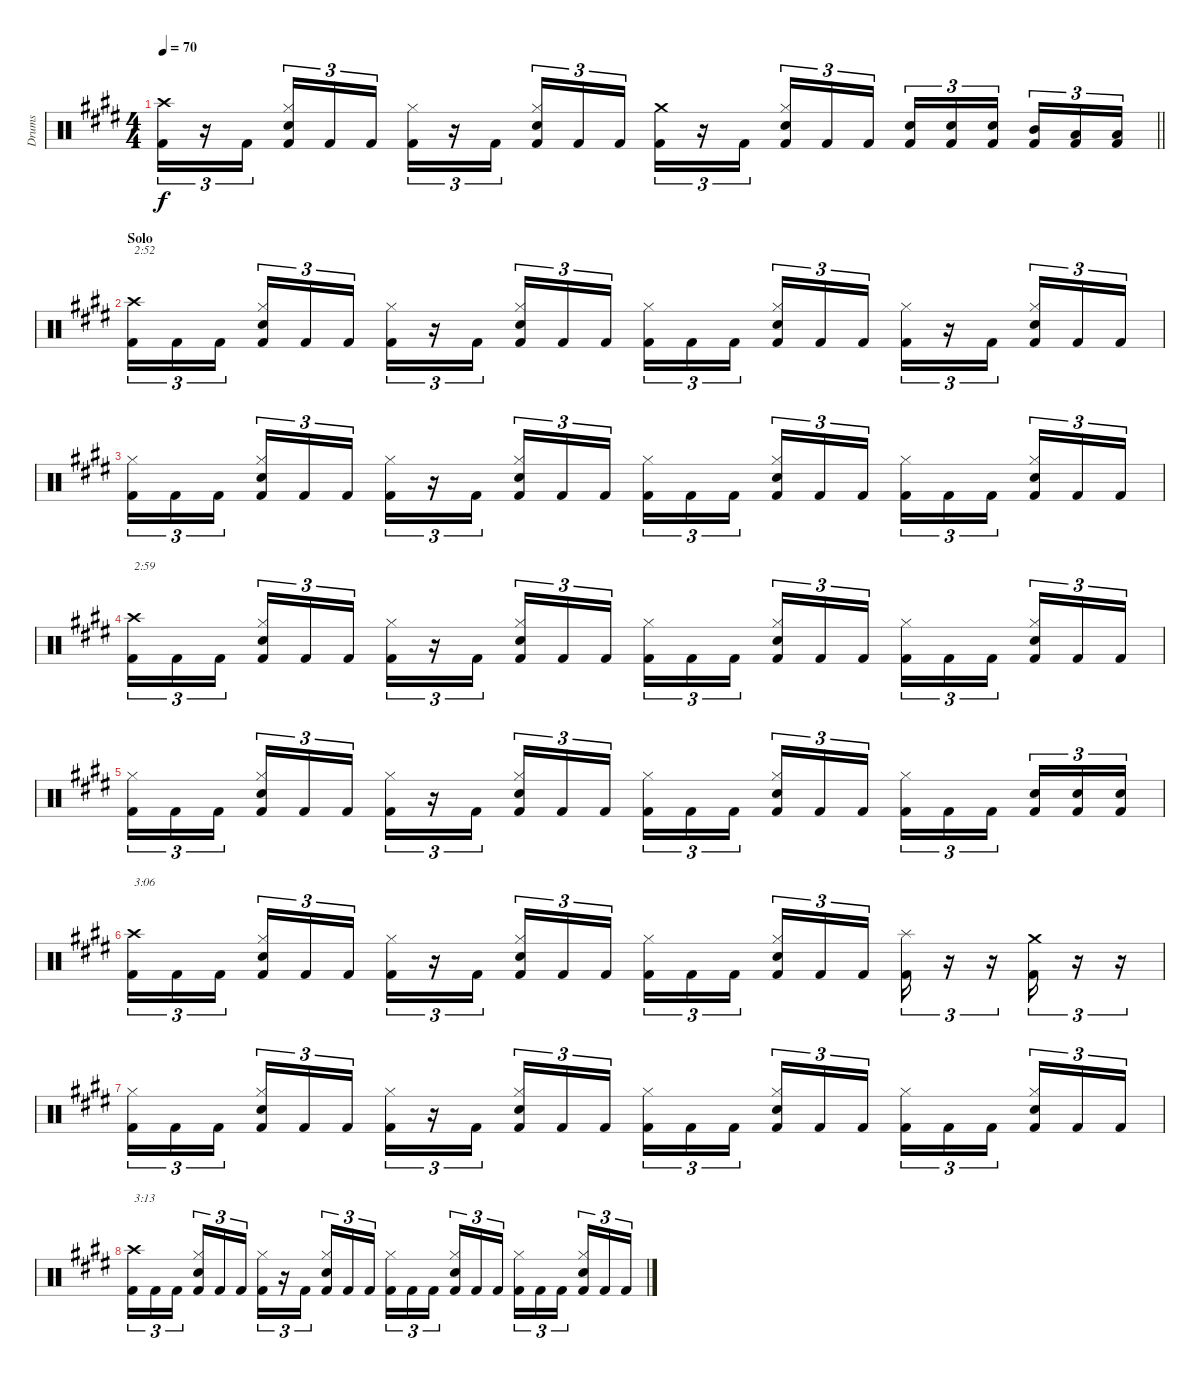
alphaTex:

\track ("Drums" "Drums") {instrument percussion}
\staff {score}
\articulation defaults
\ts (4 4)
\tempo 70
\clef neutral
\barLineRight lightlight
\ks c#minor
("Crash high (hit)" "Kick (hit) 2").16{tu (3 2) dy f} r.16{tu (3 2)} "Kick (hit) 2".16{tu (3 2) beam splitsecondary} ("Hi-Hat (closed)" "Snare (hit) 2" "Kick (hit) 2").16{tu (3 2)} "Kick (hit) 2".16{tu (3 2)} "Kick (hit) 2".16{tu (3 2)} ("Hi-Hat (closed)" "Kick (hit) 2").16{tu (3 2)} r.16{tu (3 2)} "Kick (hit) 2".16{tu (3 2) beam splitsecondary} ("Hi-Hat (closed)" "Snare (hit) 2" "Kick (hit) 2").16{tu (3 2)} "Kick (hit) 2".16{tu (3 2)} "Kick (hit) 2".16{tu (3 2)} ("Crash medium (hit)" "Kick (hit) 2").16{tu (3 2)} r.16{tu (3 2)} "Kick (hit) 2".16{tu (3 2) beam splitsecondary} ("Hi-Hat (closed)" "Snare (hit) 2" "Kick (hit) 2").16{tu (3 2)} "Kick (hit) 2".16{tu (3 2)} "Kick (hit) 2".16{tu (3 2)} ("Snare (hit) 2" "Kick (hit) 2").16{tu (3 2)} ("Snare (hit) 2" "Kick (hit) 2").16{tu (3 2)} ("Snare (hit) 2" "Kick (hit) 2").16{tu (3 2) beam splitsecondary} ("Mid Tom (hit)" "Kick (hit) 2").16{tu (3 2)} ("Low Tom (hit)" "Kick (hit) 2").16{tu (3 2)} ("Low Tom (hit)" "Kick (hit) 2").16{tu (3 2)} |
\section ("" "Solo")
("Crash high (hit)" "Kick (hit) 2").16{tu (3 2) txt "2:52"} "Kick (hit) 2".16{tu (3 2)} "Kick (hit) 2".16{tu (3 2) beam splitsecondary} ("Hi-Hat (closed)" "Snare (hit) 2" "Kick (hit) 2").16{tu (3 2)} "Kick (hit) 2".16{tu (3 2)} "Kick (hit) 2".16{tu (3 2)} ("Hi-Hat (closed)" "Kick (hit) 2").16{tu (3 2)} r.16{tu (3 2)} "Kick (hit) 2".16{tu (3 2) beam splitsecondary} ("Hi-Hat (closed)" "Snare (hit) 2" "Kick (hit) 2").16{tu (3 2)} "Kick (hit) 2".16{tu (3 2)} "Kick (hit) 2".16{tu (3 2)} ("Hi-Hat (closed)" "Kick (hit) 2").16{tu (3 2)} "Kick (hit) 2".16{tu (3 2)} "Kick (hit) 2".16{tu (3 2) beam splitsecondary} ("Hi-Hat (closed)" "Snare (hit) 2" "Kick (hit) 2").16{tu (3 2)} "Kick (hit) 2".16{tu (3 2)} "Kick (hit) 2".16{tu (3 2)} ("Hi-Hat (closed)" "Kick (hit) 2").16{tu (3 2)} r.16{tu (3 2)} "Kick (hit) 2".16{tu (3 2) beam splitsecondary} ("Hi-Hat (closed)" "Snare (hit) 2" "Kick (hit) 2").16{tu (3 2)} "Kick (hit) 2".16{tu (3 2)} "Kick (hit) 2".16{tu (3 2)} |
("Hi-Hat (closed)" "Kick (hit) 2").16{tu (3 2)} "Kick (hit) 2".16{tu (3 2)} "Kick (hit) 2".16{tu (3 2) beam splitsecondary} ("Hi-Hat (closed)" "Snare (hit) 2" "Kick (hit) 2").16{tu (3 2)} "Kick (hit) 2".16{tu (3 2)} "Kick (hit) 2".16{tu (3 2)} ("Hi-Hat (closed)" "Kick (hit) 2").16{tu (3 2)} r.16{tu (3 2)} "Kick (hit) 2".16{tu (3 2) beam splitsecondary} ("Hi-Hat (closed)" "Snare (hit) 2" "Kick (hit) 2").16{tu (3 2)} "Kick (hit) 2".16{tu (3 2)} "Kick (hit) 2".16{tu (3 2)} ("Hi-Hat (closed)" "Kick (hit) 2").16{tu (3 2)} "Kick (hit) 2".16{tu (3 2)} "Kick (hit) 2".16{tu (3 2) beam splitsecondary} ("Hi-Hat (closed)" "Snare (hit) 2" "Kick (hit) 2").16{tu (3 2)} "Kick (hit) 2".16{tu (3 2)} "Kick (hit) 2".16{tu (3 2)} ("Hi-Hat (closed)" "Kick (hit) 2").16{tu (3 2)} "Kick (hit) 2".16{tu (3 2)} "Kick (hit) 2".16{tu (3 2) beam splitsecondary} ("Hi-Hat (closed)" "Snare (hit) 2" "Kick (hit) 2").16{tu (3 2)} "Kick (hit) 2".16{tu (3 2)} "Kick (hit) 2".16{tu (3 2)} |
("Crash high (hit)" "Kick (hit) 2").16{tu (3 2) txt "2:59"} "Kick (hit) 2".16{tu (3 2)} "Kick (hit) 2".16{tu (3 2) beam splitsecondary} ("Hi-Hat (closed)" "Snare (hit) 2" "Kick (hit) 2").16{tu (3 2)} "Kick (hit) 2".16{tu (3 2)} "Kick (hit) 2".16{tu (3 2)} ("Hi-Hat (closed)" "Kick (hit) 2").16{tu (3 2)} r.16{tu (3 2)} "Kick (hit) 2".16{tu (3 2) beam splitsecondary} ("Hi-Hat (closed)" "Snare (hit) 2" "Kick (hit) 2").16{tu (3 2)} "Kick (hit) 2".16{tu (3 2)} "Kick (hit) 2".16{tu (3 2)} ("Hi-Hat (closed)" "Kick (hit) 2").16{tu (3 2)} "Kick (hit) 2".16{tu (3 2)} "Kick (hit) 2".16{tu (3 2) beam splitsecondary} ("Hi-Hat (closed)" "Snare (hit) 2" "Kick (hit) 2").16{tu (3 2)} "Kick (hit) 2".16{tu (3 2)} "Kick (hit) 2".16{tu (3 2)} ("Hi-Hat (closed)" "Kick (hit) 2").16{tu (3 2)} "Kick (hit) 2".16{tu (3 2)} "Kick (hit) 2".16{tu (3 2) beam splitsecondary} ("Hi-Hat (closed)" "Snare (hit) 2" "Kick (hit) 2").16{tu (3 2)} "Kick (hit) 2".16{tu (3 2)} "Kick (hit) 2".16{tu (3 2)} |
("Hi-Hat (closed)" "Kick (hit) 2").16{tu (3 2)} "Kick (hit) 2".16{tu (3 2)} "Kick (hit) 2".16{tu (3 2) beam splitsecondary} ("Hi-Hat (closed)" "Snare (hit) 2" "Kick (hit) 2").16{tu (3 2)} "Kick (hit) 2".16{tu (3 2)} "Kick (hit) 2".16{tu (3 2)} ("Hi-Hat (closed)" "Kick (hit) 2").16{tu (3 2)} r.16{tu (3 2)} "Kick (hit) 2".16{tu (3 2) beam splitsecondary} ("Hi-Hat (closed)" "Snare (hit) 2" "Kick (hit) 2").16{tu (3 2)} "Kick (hit) 2".16{tu (3 2)} "Kick (hit) 2".16{tu (3 2)} ("Hi-Hat (closed)" "Kick (hit) 2").16{tu (3 2)} "Kick (hit) 2".16{tu (3 2)} "Kick (hit) 2".16{tu (3 2) beam splitsecondary} ("Hi-Hat (closed)" "Snare (hit) 2" "Kick (hit) 2").16{tu (3 2)} "Kick (hit) 2".16{tu (3 2)} "Kick (hit) 2".16{tu (3 2)} ("Hi-Hat (closed)" "Kick (hit) 2").16{tu (3 2)} "Kick (hit) 2".16{tu (3 2)} "Kick (hit) 2".16{tu (3 2) beam splitsecondary} ("Snare (hit) 2" "Kick (hit) 2").16{tu (3 2)} ("Snare (hit) 2" "Kick (hit) 2").16{tu (3 2)} ("Snare (hit) 2" "Kick (hit) 2").16{tu (3 2)} |
("Crash high (hit)" "Kick (hit) 2").16{tu (3 2) txt "3:06"} "Kick (hit) 2".16{tu (3 2)} "Kick (hit) 2".16{tu (3 2) beam splitsecondary} ("Hi-Hat (closed)" "Snare (hit) 2" "Kick (hit) 2").16{tu (3 2)} "Kick (hit) 2".16{tu (3 2)} "Kick (hit) 2".16{tu (3 2)} ("Hi-Hat (closed)" "Kick (hit) 2").16{tu (3 2)} r.16{tu (3 2)} "Kick (hit) 2".16{tu (3 2) beam splitsecondary} ("Hi-Hat (closed)" "Snare (hit) 2" "Kick (hit) 2").16{tu (3 2)} "Kick (hit) 2".16{tu (3 2)} "Kick (hit) 2".16{tu (3 2)} ("Hi-Hat (closed)" "Kick (hit) 2").16{tu (3 2)} "Kick (hit) 2".16{tu (3 2)} "Kick (hit) 2".16{tu (3 2) beam splitsecondary} ("Hi-Hat (closed)" "Snare (hit) 2" "Kick (hit) 2").16{tu (3 2)} "Kick (hit) 2".16{tu (3 2)} "Kick (hit) 2".16{tu (3 2)} ("Splash (hit)" "Kick (hit) 2").16{tu (3 2)} r.16{tu (3 2)} r.16{tu (3 2)} ("Crash medium (hit)" "Kick (hit) 2").16{tu (3 2)} r.16{tu (3 2)} r.16{tu (3 2)} |
("Hi-Hat (closed)" "Kick (hit) 2").16{tu (3 2)} "Kick (hit) 2".16{tu (3 2)} "Kick (hit) 2".16{tu (3 2) beam splitsecondary} ("Hi-Hat (closed)" "Snare (hit) 2" "Kick (hit) 2").16{tu (3 2)} "Kick (hit) 2".16{tu (3 2)} "Kick (hit) 2".16{tu (3 2)} ("Hi-Hat (closed)" "Kick (hit) 2").16{tu (3 2)} r.16{tu (3 2)} "Kick (hit) 2".16{tu (3 2) beam splitsecondary} ("Hi-Hat (closed)" "Snare (hit) 2" "Kick (hit) 2").16{tu (3 2)} "Kick (hit) 2".16{tu (3 2)} "Kick (hit) 2".16{tu (3 2)} ("Hi-Hat (closed)" "Kick (hit) 2").16{tu (3 2)} "Kick (hit) 2".16{tu (3 2)} "Kick (hit) 2".16{tu (3 2) beam splitsecondary} ("Hi-Hat (closed)" "Snare (hit) 2" "Kick (hit) 2").16{tu (3 2)} "Kick (hit) 2".16{tu (3 2)} "Kick (hit) 2".16{tu (3 2)} ("Hi-Hat (closed)" "Kick (hit) 2").16{tu (3 2)} "Kick (hit) 2".16{tu (3 2)} "Kick (hit) 2".16{tu (3 2) beam splitsecondary} ("Hi-Hat (closed)" "Snare (hit) 2" "Kick (hit) 2").16{tu (3 2)} "Kick (hit) 2".16{tu (3 2)} "Kick (hit) 2".16{tu (3 2)} |
("Crash high (hit)" "Kick (hit) 2").16{tu (3 2) txt "3:13"} "Kick (hit) 2".16{tu (3 2)} "Kick (hit) 2".16{tu (3 2) beam splitsecondary} ("Hi-Hat (closed)" "Snare (hit) 2" "Kick (hit) 2").16{tu (3 2)} "Kick (hit) 2".16{tu (3 2)} "Kick (hit) 2".16{tu (3 2)} ("Hi-Hat (closed)" "Kick (hit) 2").16{tu (3 2)} r.16{tu (3 2)} "Kick (hit) 2".16{tu (3 2) beam splitsecondary} ("Hi-Hat (closed)" "Snare (hit) 2" "Kick (hit) 2").16{tu (3 2)} "Kick (hit) 2".16{tu (3 2)} "Kick (hit) 2".16{tu (3 2)} ("Hi-Hat (closed)" "Kick (hit) 2").16{tu (3 2)} "Kick (hit) 2".16{tu (3 2)} "Kick (hit) 2".16{tu (3 2) beam splitsecondary} ("Hi-Hat (closed)" "Snare (hit) 2" "Kick (hit) 2").16{tu (3 2)} "Kick (hit) 2".16{tu (3 2)} "Kick (hit) 2".16{tu (3 2)} ("Hi-Hat (closed)" "Kick (hit) 2").16{tu (3 2)} "Kick (hit) 2".16{tu (3 2)} "Kick (hit) 2".16{tu (3 2) beam splitsecondary} ("Hi-Hat (closed)" "Snare (hit) 2" "Kick (hit) 2").16{tu (3 2)} "Kick (hit) 2".16{tu (3 2)} "Kick (hit) 2".16{tu (3 2)}
